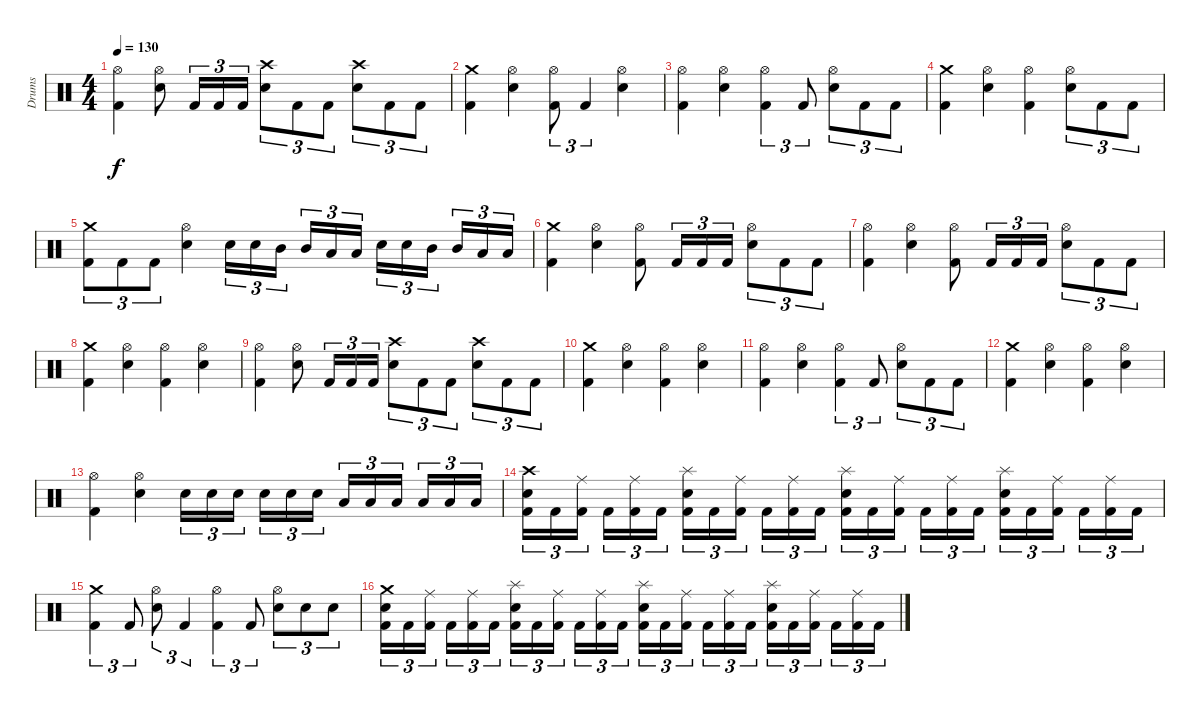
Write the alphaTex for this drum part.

\track ("Drums" "Drums") {instrument percussion}
\staff {score}
\articulation defaults
\ts (4 4)
\tempo 130
\clef neutral
\ks c
("Kick (hit) 2" "Hi-Hat (open)").4{dy f} ("Electric Snare (hit)" "Hi-Hat (open)").8 "Kick (hit) 2".16{tu (3 2)} "Kick (hit) 2".16{tu (3 2)} "Kick (hit) 2".16{tu (3 2)} ("Electric Snare (hit)" "Crash high (hit)").8{tu (3 2)} "Kick (hit) 2".8{tu (3 2)} "Kick (hit) 2".8{tu (3 2)} ("Electric Snare (hit)" "Crash high (hit)").8{tu (3 2)} "Kick (hit) 2".8{tu (3 2)} "Kick (hit) 2".8{tu (3 2)} |
("Kick (hit) 2" "Crash medium (hit)").4 ("Electric Snare (hit)" "Hi-Hat (open)").4 ("Kick (hit) 2" "Hi-Hat (open)").8{tu (3 2)} "Kick (hit) 2".4{tu (3 2)} ("Electric Snare (hit)" "Hi-Hat (open)").4 |
("Kick (hit) 2" "Hi-Hat (open)").4 ("Electric Snare (hit)" "Hi-Hat (open)").4 ("Kick (hit) 2" "Hi-Hat (open)").4{tu (3 2)} "Kick (hit) 2".8{tu (3 2)} ("Electric Snare (hit)" "Hi-Hat (open)").8{tu (3 2)} "Kick (hit) 2".8{tu (3 2)} "Kick (hit) 2".8{tu (3 2)} |
("Kick (hit) 2" "Crash medium (hit)").4 ("Electric Snare (hit)" "Hi-Hat (open)").4 ("Kick (hit) 2" "Hi-Hat (open)").4 ("Electric Snare (hit)" "Hi-Hat (open)").8{tu (3 2)} "Kick (hit) 2".8{tu (3 2)} "Kick (hit) 2".8{tu (3 2)} |
("Kick (hit) 2" "Crash medium (hit)").8{tu (3 2)} "Kick (hit) 2".8{tu (3 2)} "Kick (hit) 2".8{tu (3 2)} ("Electric Snare (hit)" "Hi-Hat (open)").4 "Electric Snare (hit)".16{tu (3 2)} "Electric Snare (hit)".16{tu (3 2)} "Mid Tom (hit)".16{tu (3 2)} "Mid Tom (hit)".16{tu (3 2)} "Low Tom (hit)".16{tu (3 2)} "Low Tom (hit)".16{tu (3 2)} "Electric Snare (hit)".16{tu (3 2)} "Electric Snare (hit)".16{tu (3 2)} "Mid Tom (hit)".16{tu (3 2)} "Mid Tom (hit)".16{tu (3 2)} "Low Tom (hit)".16{tu (3 2)} "Low Tom (hit)".16{tu (3 2)} |
("Kick (hit) 2" "Crash medium (hit)").4 ("Electric Snare (hit)" "Hi-Hat (open)").4 ("Kick (hit) 2" "Hi-Hat (open)").8 "Kick (hit) 2".16{tu (3 2)} "Kick (hit) 2".16{tu (3 2)} "Kick (hit) 2".16{tu (3 2)} ("Electric Snare (hit)" "Hi-Hat (open)").8{tu (3 2)} "Kick (hit) 2".8{tu (3 2)} "Kick (hit) 2".8{tu (3 2)} |
("Kick (hit) 2" "Hi-Hat (open)").4 ("Electric Snare (hit)" "Hi-Hat (open)").4 ("Kick (hit) 2" "Hi-Hat (open)").8 "Kick (hit) 2".16{tu (3 2)} "Kick (hit) 2".16{tu (3 2)} "Kick (hit) 2".16{tu (3 2)} ("Electric Snare (hit)" "Hi-Hat (open)").8{tu (3 2)} "Kick (hit) 2".8{tu (3 2)} "Kick (hit) 2".8{tu (3 2)} |
("Kick (hit) 2" "Crash medium (hit)").4 ("Electric Snare (hit)" "Hi-Hat (open)").4 ("Kick (hit) 2" "Hi-Hat (open)").4 ("Electric Snare (hit)" "Hi-Hat (open)").4 |
("Kick (hit) 2" "Hi-Hat (open)").4 ("Electric Snare (hit)" "Hi-Hat (open)").8 "Kick (hit) 2".16{tu (3 2)} "Kick (hit) 2".16{tu (3 2)} "Kick (hit) 2".16{tu (3 2)} ("Electric Snare (hit)" "Crash high (hit)").8{tu (3 2)} "Kick (hit) 2".8{tu (3 2)} "Kick (hit) 2".8{tu (3 2)} ("Electric Snare (hit)" "Crash high (hit)").8{tu (3 2)} "Kick (hit) 2".8{tu (3 2)} "Kick (hit) 2".8{tu (3 2)} |
("Kick (hit) 2" "Crash medium (hit)").4 ("Electric Snare (hit)" "Hi-Hat (open)").4 ("Kick (hit) 2" "Hi-Hat (open)").4 ("Electric Snare (hit)" "Hi-Hat (open)").4 |
("Kick (hit) 2" "Hi-Hat (open)").4 ("Electric Snare (hit)" "Hi-Hat (open)").4 ("Kick (hit) 2" "Hi-Hat (open)").4{tu (3 2)} "Kick (hit) 2".8{tu (3 2)} ("Electric Snare (hit)" "Hi-Hat (open)").8{tu (3 2)} "Kick (hit) 2".8{tu (3 2)} "Kick (hit) 2".8{tu (3 2)} |
("Kick (hit) 2" "Crash medium (hit)").4 ("Electric Snare (hit)" "Hi-Hat (open)").4 ("Kick (hit) 2" "Hi-Hat (open)").4 ("Electric Snare (hit)" "Hi-Hat (open)").4 |
("Kick (hit) 2" "Hi-Hat (open)").4 ("Electric Snare (hit)" "Hi-Hat (open)").4 "Electric Snare (hit)".16{tu (3 2)} "Electric Snare (hit)".16{tu (3 2)} "Electric Snare (hit)".16{tu (3 2)} "Electric Snare (hit)".16{tu (3 2)} "Electric Snare (hit)".16{tu (3 2)} "Electric Snare (hit)".16{tu (3 2)} "Low Tom (hit)".16{tu (3 2)} "Low Tom (hit)".16{tu (3 2)} "Low Tom (hit)".16{tu (3 2)} "Low Tom (hit)".16{tu (3 2)} "Low Tom (hit)".16{tu (3 2)} "Low Tom (hit)".16{tu (3 2)} |
("Kick (hit) 2" "Electric Snare (hit)" "Crash high (hit)").16{tu (3 2)} "Kick (hit) 2".16{tu (3 2)} ("Kick (hit) 2" "Ride (middle)").16{tu (3 2)} "Kick (hit) 2".16{tu (3 2)} ("Kick (hit) 2" "Ride (middle)").16{tu (3 2)} "Kick (hit) 2".16{tu (3 2)} ("Kick (hit) 2" "Electric Snare (hit)" "Splash (hit)").16{tu (3 2)} "Kick (hit) 2".16{tu (3 2)} ("Kick (hit) 2" "Ride (middle)").16{tu (3 2)} "Kick (hit) 2".16{tu (3 2)} ("Kick (hit) 2" "Ride (middle)").16{tu (3 2)} "Kick (hit) 2".16{tu (3 2)} ("Kick (hit) 2" "Electric Snare (hit)" "Splash (hit)").16{tu (3 2)} "Kick (hit) 2".16{tu (3 2)} ("Kick (hit) 2" "Ride (middle)").16{tu (3 2)} "Kick (hit) 2".16{tu (3 2)} ("Kick (hit) 2" "Ride (middle)").16{tu (3 2)} "Kick (hit) 2".16{tu (3 2)} ("Kick (hit) 2" "Electric Snare (hit)" "Splash (hit)").16{tu (3 2)} "Kick (hit) 2".16{tu (3 2)} ("Kick (hit) 2" "Ride (middle)").16{tu (3 2)} "Kick (hit) 2".16{tu (3 2)} ("Kick (hit) 2" "Ride (middle)").16{tu (3 2)} "Kick (hit) 2".16{tu (3 2)} |
("Kick (hit) 2" "Crash medium (hit)").4{tu (3 2)} "Kick (hit) 2".8{tu (3 2)} ("Electric Snare (hit)" "Hi-Hat (open)").8{tu (3 2)} "Kick (hit) 2".4{tu (3 2)} ("Kick (hit) 2" "Hi-Hat (open)").4{tu (3 2)} "Kick (hit) 2".8{tu (3 2)} ("Electric Snare (hit)" "Hi-Hat (open)").8{tu (3 2)} "Electric Snare (hit)".8{tu (3 2)} "Electric Snare (hit)".8{tu (3 2)} |
("Kick (hit) 2" "Electric Snare (hit)" "Crash medium (hit)").16{tu (3 2)} "Kick (hit) 2".16{tu (3 2)} ("Kick (hit) 2" "Ride (middle)").16{tu (3 2)} "Kick (hit) 2".16{tu (3 2)} ("Kick (hit) 2" "Ride (middle)").16{tu (3 2)} "Kick (hit) 2".16{tu (3 2)} ("Kick (hit) 2" "Electric Snare (hit)" "Splash (hit)").16{tu (3 2)} "Kick (hit) 2".16{tu (3 2)} ("Kick (hit) 2" "Ride (middle)").16{tu (3 2)} "Kick (hit) 2".16{tu (3 2)} ("Kick (hit) 2" "Ride (middle)").16{tu (3 2)} "Kick (hit) 2".16{tu (3 2)} ("Kick (hit) 2" "Electric Snare (hit)" "Splash (hit)").16{tu (3 2)} "Kick (hit) 2".16{tu (3 2)} ("Kick (hit) 2" "Ride (middle)").16{tu (3 2)} "Kick (hit) 2".16{tu (3 2)} ("Kick (hit) 2" "Ride (middle)").16{tu (3 2)} "Kick (hit) 2".16{tu (3 2)} ("Kick (hit) 2" "Electric Snare (hit)" "Splash (hit)").16{tu (3 2)} "Kick (hit) 2".16{tu (3 2)} ("Kick (hit) 2" "Ride (middle)").16{tu (3 2)} "Kick (hit) 2".16{tu (3 2)} ("Kick (hit) 2" "Ride (middle)").16{tu (3 2)} "Kick (hit) 2".16{tu (3 2)}
